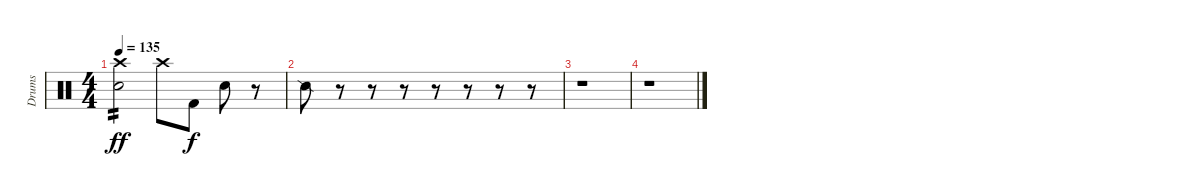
\track ("Drums" "Drums") {instrument percussion}
\staff {score}
\articulation defaults
\ts (4 4)
\tempo 135
\clef neutral
\ks c
("Crash high (hit)" "Electric Snare (hit)").2{tp 2 dy ff} "Crash high (hit)".8 "Kick (hit) 2".8{dy f} "Electric Snare (hit)".8 r.8 |
"Snare (side stick) 2".8 r.8 r.8 r.8 r.8 r.8 r.8 r.8 |
r.1 |
r.1
